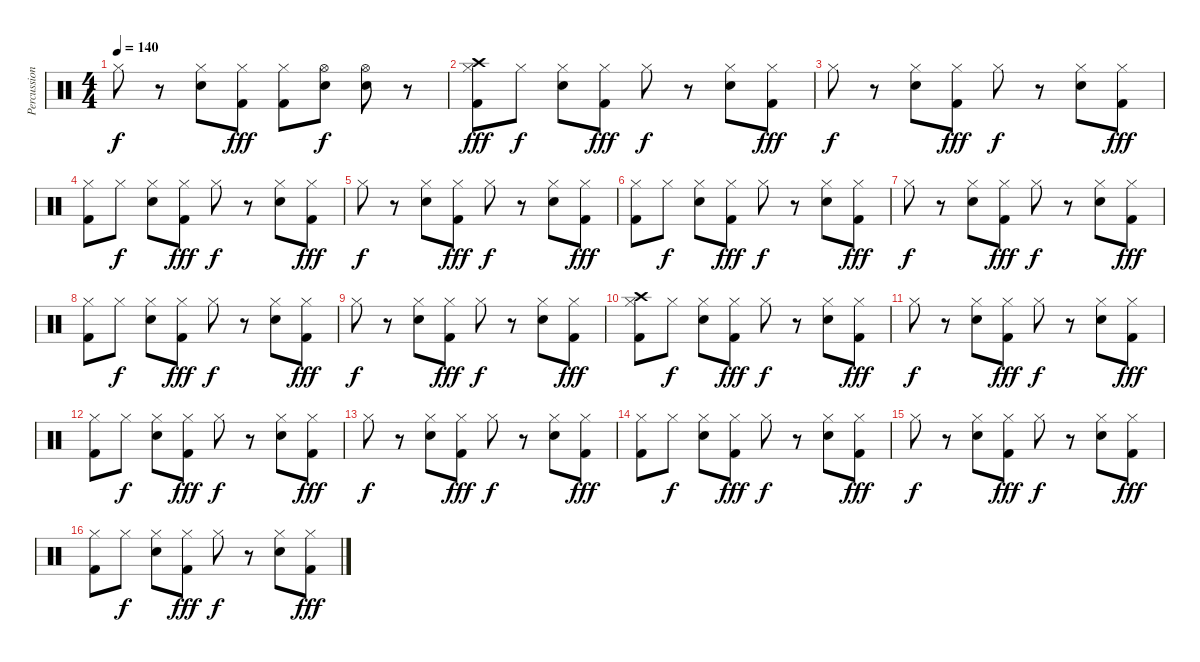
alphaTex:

\track ("Percussion" "Percussion") {instrument percussion}
\staff {score}
\articulation defaults
\ts (4 4)
\tempo 140
\clef neutral
\ks c "Hi-Hat (closed)".8{dy f}
r.8 ("Hi-Hat (closed)" "Electric Snare (hit)").8 ("Hi-Hat (closed)" "Kick (hit) 2").8{dy fff} ("Hi-Hat (closed)" "Kick (hit) 2").8 ("Hi-Hat (open)" "Electric Snare (hit)").8{dy f} ("Hi-Hat (open)" "Electric Snare (hit)").8 r.8 |
("Hi-Hat (closed)" "Kick (hit) 2" "Crash high (hit)").8{dy fff} "Hi-Hat (closed)".8{dy f} ("Hi-Hat (closed)" "Electric Snare (hit)").8 ("Hi-Hat (closed)" "Kick (hit) 2").8{dy fff} "Hi-Hat (closed)".8{dy f} r.8 ("Hi-Hat (closed)" "Electric Snare (hit)").8 ("Hi-Hat (closed)" "Kick (hit) 2").8{dy fff} |
"Hi-Hat (closed)".8{dy f} r.8 ("Hi-Hat (closed)" "Electric Snare (hit)").8 ("Hi-Hat (closed)" "Kick (hit) 2").8{dy fff} "Hi-Hat (closed)".8{dy f} r.8 ("Hi-Hat (closed)" "Electric Snare (hit)").8 ("Hi-Hat (closed)" "Kick (hit) 2").8{dy fff} |
("Hi-Hat (closed)" "Kick (hit) 2").8 "Hi-Hat (closed)".8{dy f} ("Hi-Hat (closed)" "Electric Snare (hit)").8 ("Hi-Hat (closed)" "Kick (hit) 2").8{dy fff} "Hi-Hat (closed)".8{dy f} r.8 ("Hi-Hat (closed)" "Electric Snare (hit)").8 ("Hi-Hat (closed)" "Kick (hit) 2").8{dy fff} |
"Hi-Hat (closed)".8{dy f} r.8 ("Hi-Hat (closed)" "Electric Snare (hit)").8 ("Hi-Hat (closed)" "Kick (hit) 2").8{dy fff} "Hi-Hat (closed)".8{dy f} r.8 ("Hi-Hat (closed)" "Electric Snare (hit)").8 ("Hi-Hat (closed)" "Kick (hit) 2").8{dy fff} |
("Hi-Hat (closed)" "Kick (hit) 2").8 "Hi-Hat (closed)".8{dy f} ("Hi-Hat (closed)" "Electric Snare (hit)").8 ("Hi-Hat (closed)" "Kick (hit) 2").8{dy fff} "Hi-Hat (closed)".8{dy f} r.8 ("Hi-Hat (closed)" "Electric Snare (hit)").8 ("Hi-Hat (closed)" "Kick (hit) 2").8{dy fff} |
"Hi-Hat (closed)".8{dy f} r.8 ("Hi-Hat (closed)" "Electric Snare (hit)").8 ("Hi-Hat (closed)" "Kick (hit) 2").8{dy fff} "Hi-Hat (closed)".8{dy f} r.8 ("Hi-Hat (closed)" "Electric Snare (hit)").8 ("Hi-Hat (closed)" "Kick (hit) 2").8{dy fff} |
("Hi-Hat (closed)" "Kick (hit) 2").8 "Hi-Hat (closed)".8{dy f} ("Hi-Hat (closed)" "Electric Snare (hit)").8 ("Hi-Hat (closed)" "Kick (hit) 2").8{dy fff} "Hi-Hat (closed)".8{dy f} r.8 ("Hi-Hat (closed)" "Electric Snare (hit)").8 ("Hi-Hat (closed)" "Kick (hit) 2").8{dy fff} |
"Hi-Hat (closed)".8{dy f} r.8 ("Hi-Hat (closed)" "Electric Snare (hit)").8 ("Hi-Hat (closed)" "Kick (hit) 2").8{dy fff} "Hi-Hat (closed)".8{dy f} r.8 ("Hi-Hat (closed)" "Electric Snare (hit)").8 ("Hi-Hat (closed)" "Kick (hit) 2").8{dy fff} |
("Hi-Hat (closed)" "Kick (hit) 2" "Crash high (hit)").8 "Hi-Hat (closed)".8{dy f} ("Hi-Hat (closed)" "Electric Snare (hit)").8 ("Hi-Hat (closed)" "Kick (hit) 2").8{dy fff} "Hi-Hat (closed)".8{dy f} r.8 ("Hi-Hat (closed)" "Electric Snare (hit)").8 ("Hi-Hat (closed)" "Kick (hit) 2").8{dy fff} |
"Hi-Hat (closed)".8{dy f} r.8 ("Hi-Hat (closed)" "Electric Snare (hit)").8 ("Hi-Hat (closed)" "Kick (hit) 2").8{dy fff} "Hi-Hat (closed)".8{dy f} r.8 ("Hi-Hat (closed)" "Electric Snare (hit)").8 ("Hi-Hat (closed)" "Kick (hit) 2").8{dy fff} |
("Hi-Hat (closed)" "Kick (hit) 2").8 "Hi-Hat (closed)".8{dy f} ("Hi-Hat (closed)" "Electric Snare (hit)").8 ("Hi-Hat (closed)" "Kick (hit) 2").8{dy fff} "Hi-Hat (closed)".8{dy f} r.8 ("Hi-Hat (closed)" "Electric Snare (hit)").8 ("Hi-Hat (closed)" "Kick (hit) 2").8{dy fff} |
"Hi-Hat (closed)".8{dy f} r.8 ("Hi-Hat (closed)" "Electric Snare (hit)").8 ("Hi-Hat (closed)" "Kick (hit) 2").8{dy fff} "Hi-Hat (closed)".8{dy f} r.8 ("Hi-Hat (closed)" "Electric Snare (hit)").8 ("Hi-Hat (closed)" "Kick (hit) 2").8{dy fff} |
("Hi-Hat (closed)" "Kick (hit) 2").8 "Hi-Hat (closed)".8{dy f} ("Hi-Hat (closed)" "Electric Snare (hit)").8 ("Hi-Hat (closed)" "Kick (hit) 2").8{dy fff} "Hi-Hat (closed)".8{dy f} r.8 ("Hi-Hat (closed)" "Electric Snare (hit)").8 ("Hi-Hat (closed)" "Kick (hit) 2").8{dy fff} |
"Hi-Hat (closed)".8{dy f} r.8 ("Hi-Hat (closed)" "Electric Snare (hit)").8 ("Hi-Hat (closed)" "Kick (hit) 2").8{dy fff} "Hi-Hat (closed)".8{dy f} r.8 ("Hi-Hat (closed)" "Electric Snare (hit)").8 ("Hi-Hat (closed)" "Kick (hit) 2").8{dy fff} |
("Hi-Hat (closed)" "Kick (hit) 2").8 "Hi-Hat (closed)".8{dy f} ("Hi-Hat (closed)" "Electric Snare (hit)").8 ("Hi-Hat (closed)" "Kick (hit) 2").8{dy fff} "Hi-Hat (closed)".8{dy f} r.8 ("Hi-Hat (closed)" "Electric Snare (hit)").8 ("Hi-Hat (closed)" "Kick (hit) 2").8{dy fff}
